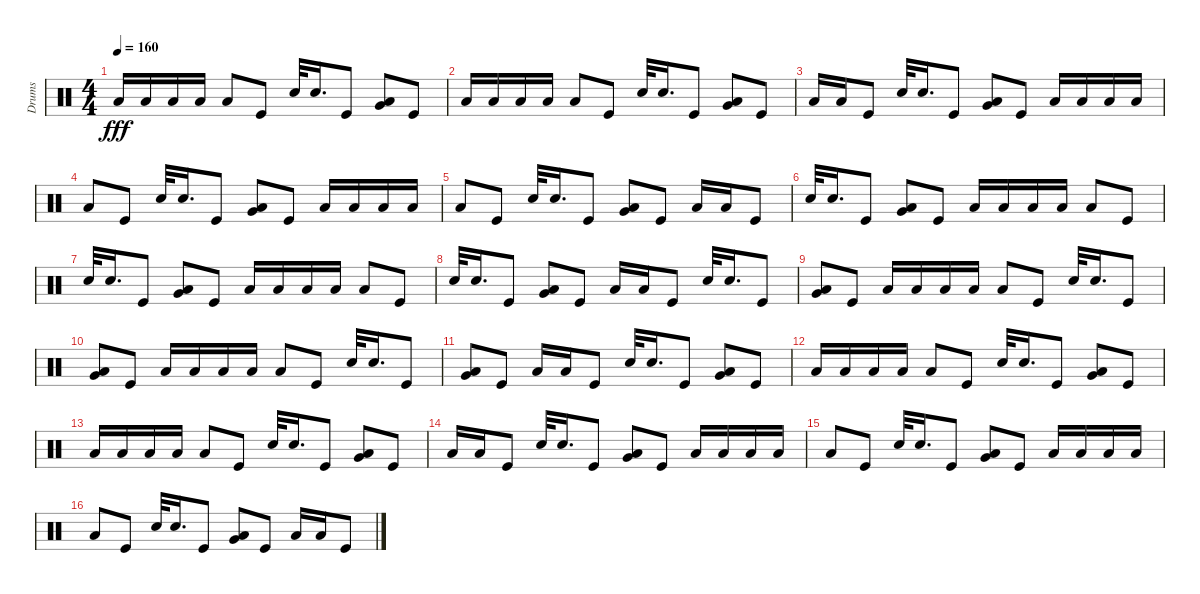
\track ("Drums" "Drums") {instrument percussion}
\staff {score}
\articulation defaults
\ts (4 4)
\tempo 160
\clef neutral
\ks c "Low Floor Tom (hit)".16{dy fff} "Low Floor Tom (hit)".16 "Low Floor Tom (hit)".16 "Low Floor Tom (hit)".16 "Low Floor Tom (hit)".8 "Kick (hit)".8 "Electric Snare (hit)".32 "Electric Snare (hit)".16{d} "Kick (hit)".8
("Low Floor Tom (hit)" "Very Low Tom (hit)").8 "Kick (hit)".8 |
"Low Floor Tom (hit)".16 "Low Floor Tom (hit)".16 "Low Floor Tom (hit)".16 "Low Floor Tom (hit)".16 "Low Floor Tom (hit)".8 "Kick (hit)".8 "Electric Snare (hit)".32 "Electric Snare (hit)".16{d} "Kick (hit)".8 ("Low Floor Tom (hit)" "Very Low Tom (hit)").8 "Kick (hit)".8 |
"Low Floor Tom (hit)".16 "Low Floor Tom (hit)".16 "Kick (hit)".8 "Electric Snare (hit)".32 "Electric Snare (hit)".16{d} "Kick (hit)".8 ("Low Floor Tom (hit)" "Very Low Tom (hit)").8 "Kick (hit)".8 "Low Floor Tom (hit)".16 "Low Floor Tom (hit)".16 "Low Floor Tom (hit)".16 "Low Floor Tom (hit)".16 |
"Low Floor Tom (hit)".8 "Kick (hit)".8 "Electric Snare (hit)".32 "Electric Snare (hit)".16{d} "Kick (hit)".8 ("Low Floor Tom (hit)" "Very Low Tom (hit)").8 "Kick (hit)".8 "Low Floor Tom (hit)".16 "Low Floor Tom (hit)".16 "Low Floor Tom (hit)".16 "Low Floor Tom (hit)".16 |
"Low Floor Tom (hit)".8 "Kick (hit)".8 "Electric Snare (hit)".32 "Electric Snare (hit)".16{d} "Kick (hit)".8 ("Low Floor Tom (hit)" "Very Low Tom (hit)").8 "Kick (hit)".8 "Low Floor Tom (hit)".16 "Low Floor Tom (hit)".16 "Kick (hit)".8 |
"Electric Snare (hit)".32 "Electric Snare (hit)".16{d} "Kick (hit)".8 ("Low Floor Tom (hit)" "Very Low Tom (hit)").8 "Kick (hit)".8 "Low Floor Tom (hit)".16 "Low Floor Tom (hit)".16 "Low Floor Tom (hit)".16 "Low Floor Tom (hit)".16 "Low Floor Tom (hit)".8 "Kick (hit)".8 |
"Electric Snare (hit)".32 "Electric Snare (hit)".16{d} "Kick (hit)".8 ("Low Floor Tom (hit)" "Very Low Tom (hit)").8 "Kick (hit)".8 "Low Floor Tom (hit)".16 "Low Floor Tom (hit)".16 "Low Floor Tom (hit)".16 "Low Floor Tom (hit)".16 "Low Floor Tom (hit)".8 "Kick (hit)".8 |
"Electric Snare (hit)".32 "Electric Snare (hit)".16{d} "Kick (hit)".8 ("Low Floor Tom (hit)" "Very Low Tom (hit)").8 "Kick (hit)".8 "Low Floor Tom (hit)".16 "Low Floor Tom (hit)".16 "Kick (hit)".8 "Electric Snare (hit)".32 "Electric Snare (hit)".16{d} "Kick (hit)".8 |
("Low Floor Tom (hit)" "Very Low Tom (hit)").8 "Kick (hit)".8 "Low Floor Tom (hit)".16 "Low Floor Tom (hit)".16 "Low Floor Tom (hit)".16 "Low Floor Tom (hit)".16 "Low Floor Tom (hit)".8 "Kick (hit)".8 "Electric Snare (hit)".32 "Electric Snare (hit)".16{d} "Kick (hit)".8 |
("Low Floor Tom (hit)" "Very Low Tom (hit)").8 "Kick (hit)".8 "Low Floor Tom (hit)".16 "Low Floor Tom (hit)".16 "Low Floor Tom (hit)".16 "Low Floor Tom (hit)".16 "Low Floor Tom (hit)".8 "Kick (hit)".8 "Electric Snare (hit)".32 "Electric Snare (hit)".16{d} "Kick (hit)".8 |
("Low Floor Tom (hit)" "Very Low Tom (hit)").8 "Kick (hit)".8 "Low Floor Tom (hit)".16 "Low Floor Tom (hit)".16 "Kick (hit)".8 "Electric Snare (hit)".32 "Electric Snare (hit)".16{d} "Kick (hit)".8 ("Low Floor Tom (hit)" "Very Low Tom (hit)").8 "Kick (hit)".8 |
"Low Floor Tom (hit)".16 "Low Floor Tom (hit)".16 "Low Floor Tom (hit)".16 "Low Floor Tom (hit)".16 "Low Floor Tom (hit)".8 "Kick (hit)".8 "Electric Snare (hit)".32 "Electric Snare (hit)".16{d} "Kick (hit)".8 ("Low Floor Tom (hit)" "Very Low Tom (hit)").8 "Kick (hit)".8 |
"Low Floor Tom (hit)".16 "Low Floor Tom (hit)".16 "Low Floor Tom (hit)".16 "Low Floor Tom (hit)".16 "Low Floor Tom (hit)".8 "Kick (hit)".8 "Electric Snare (hit)".32 "Electric Snare (hit)".16{d} "Kick (hit)".8 ("Low Floor Tom (hit)" "Very Low Tom (hit)").8 "Kick (hit)".8 |
"Low Floor Tom (hit)".16 "Low Floor Tom (hit)".16 "Kick (hit)".8 "Electric Snare (hit)".32 "Electric Snare (hit)".16{d} "Kick (hit)".8 ("Low Floor Tom (hit)" "Very Low Tom (hit)").8 "Kick (hit)".8 "Low Floor Tom (hit)".16 "Low Floor Tom (hit)".16 "Low Floor Tom (hit)".16 "Low Floor Tom (hit)".16 |
"Low Floor Tom (hit)".8 "Kick (hit)".8 "Electric Snare (hit)".32 "Electric Snare (hit)".16{d} "Kick (hit)".8 ("Low Floor Tom (hit)" "Very Low Tom (hit)").8 "Kick (hit)".8 "Low Floor Tom (hit)".16 "Low Floor Tom (hit)".16 "Low Floor Tom (hit)".16 "Low Floor Tom (hit)".16 |
"Low Floor Tom (hit)".8 "Kick (hit)".8 "Electric Snare (hit)".32 "Electric Snare (hit)".16{d} "Kick (hit)".8 ("Low Floor Tom (hit)" "Very Low Tom (hit)").8 "Kick (hit)".8 "Low Floor Tom (hit)".16 "Low Floor Tom (hit)".16 "Kick (hit)".8
